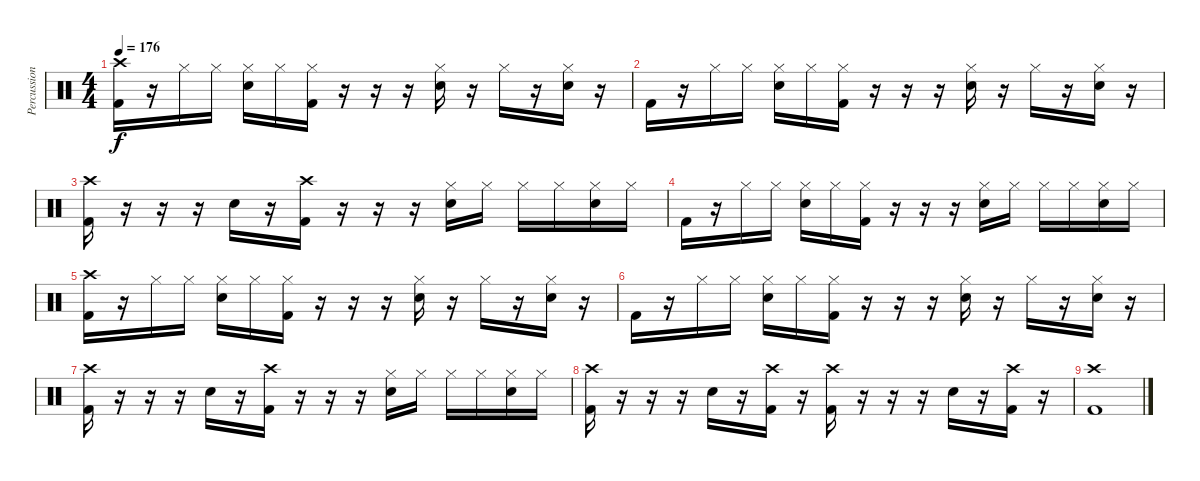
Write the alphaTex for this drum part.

\track ("Percussion" "Percussion") {instrument percussion}
\staff {score}
\articulation defaults
\ts (4 4)
\tempo 176
\clef neutral
\ks c
("Kick (hit) 2" "Crash high (hit)").16{dy f} r.16 "Hi-Hat (closed)".16 "Hi-Hat (closed)".16 ("Electric Snare (hit)" "Hi-Hat (closed)").16 "Hi-Hat (closed)".16 ("Kick (hit) 2" "Hi-Hat (closed)").16 r.16 r.16 r.16 ("Electric Snare (hit)" "Hi-Hat (closed)").16 r.16 "Hi-Hat (closed)".16 r.16 ("Electric Snare (hit)" "Hi-Hat (closed)").16 r.16 |
"Kick (hit) 2".16 r.16 "Hi-Hat (closed)".16 "Hi-Hat (closed)".16 ("Electric Snare (hit)" "Hi-Hat (closed)").16 "Hi-Hat (closed)".16 ("Kick (hit) 2" "Hi-Hat (closed)").16 r.16 r.16 r.16 ("Electric Snare (hit)" "Hi-Hat (closed)").16 r.16 "Hi-Hat (closed)".16 r.16 ("Electric Snare (hit)" "Hi-Hat (closed)").16 r.16 |
("Kick (hit) 2" "Crash high (hit)").16 r.16 r.16 r.16 "Electric Snare (hit)".16 r.16 ("Kick (hit) 2" "Crash high (hit)").16 r.16 r.16 r.16 ("Electric Snare (hit)" "Hi-Hat (closed)").16 "Hi-Hat (closed)".16 "Hi-Hat (closed)".16 "Hi-Hat (closed)".16 ("Electric Snare (hit)" "Hi-Hat (closed)").16 "Hi-Hat (closed)".16 |
"Kick (hit) 2".16 r.16 "Hi-Hat (closed)".16 "Hi-Hat (closed)".16 ("Electric Snare (hit)" "Hi-Hat (closed)").16 "Hi-Hat (closed)".16 ("Kick (hit) 2" "Hi-Hat (closed)").16 r.16 r.16 r.16 ("Electric Snare (hit)" "Hi-Hat (closed)").16 "Hi-Hat (closed)".16 "Hi-Hat (closed)".16 "Hi-Hat (closed)".16 ("Electric Snare (hit)" "Hi-Hat (closed)").16 "Hi-Hat (closed)".16 |
("Kick (hit) 2" "Crash high (hit)").16 r.16 "Hi-Hat (closed)".16 "Hi-Hat (closed)".16 ("Electric Snare (hit)" "Hi-Hat (closed)").16 "Hi-Hat (closed)".16 ("Kick (hit) 2" "Hi-Hat (closed)").16 r.16 r.16 r.16 ("Electric Snare (hit)" "Hi-Hat (closed)").16 r.16 "Hi-Hat (closed)".16 r.16 ("Electric Snare (hit)" "Hi-Hat (closed)").16 r.16 |
"Kick (hit) 2".16 r.16 "Hi-Hat (closed)".16 "Hi-Hat (closed)".16 ("Electric Snare (hit)" "Hi-Hat (closed)").16 "Hi-Hat (closed)".16 ("Kick (hit) 2" "Hi-Hat (closed)").16 r.16 r.16 r.16 ("Electric Snare (hit)" "Hi-Hat (closed)").16 r.16 "Hi-Hat (closed)".16 r.16 ("Electric Snare (hit)" "Hi-Hat (closed)").16 r.16 |
("Kick (hit) 2" "Crash high (hit)").16 r.16 r.16 r.16 "Electric Snare (hit)".16 r.16 ("Kick (hit) 2" "Crash high (hit)").16 r.16 r.16 r.16 ("Electric Snare (hit)" "Hi-Hat (closed)").16 "Hi-Hat (closed)".16 "Hi-Hat (closed)".16 "Hi-Hat (closed)".16 ("Electric Snare (hit)" "Hi-Hat (closed)").16 "Hi-Hat (closed)".16 |
("Kick (hit) 2" "Crash high (hit)").16 r.16 r.16 r.16 "Electric Snare (hit)".16 r.16 ("Kick (hit) 2" "Crash high (hit)").16 r.16 ("Kick (hit) 2" "Crash high (hit)").16 r.16 r.16 r.16 "Electric Snare (hit)".16 r.16 ("Kick (hit) 2" "Crash high (hit)").16 r.16 |
("Kick (hit) 2" "Crash high (hit)").1
